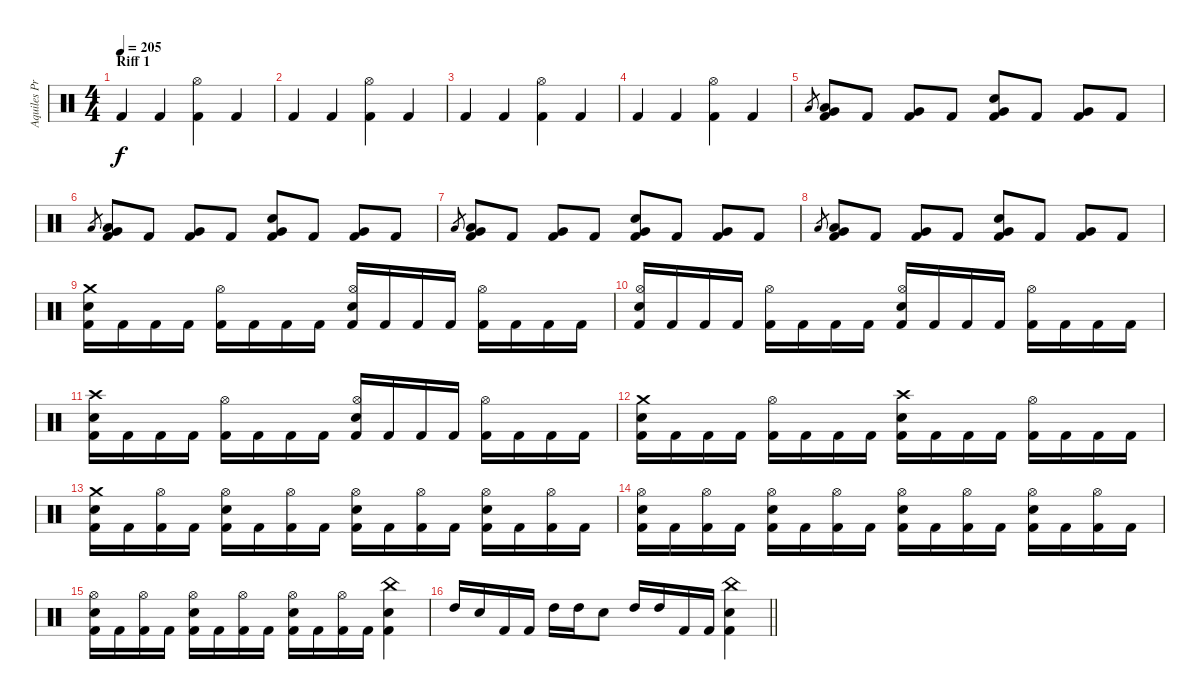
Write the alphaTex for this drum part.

\track ("Aquiles Priester" "Aquiles Pr") {instrument percussion}
\staff {score}
\articulation defaults
\ts (4 4)
\section ("" "Riff 1")
\tempo 205
\clef neutral
\ks c "Kick (hit) 2".4{dy f} "Kick (hit) 2".4
("Hi-Hat (open)" "Kick (hit) 2").4 "Kick (hit) 2".4 |
"Kick (hit) 2".4 "Kick (hit) 2".4 ("Hi-Hat (open)" "Kick (hit) 2").4 "Kick (hit) 2".4 |
"Kick (hit) 2".4 "Kick (hit) 2".4 ("Hi-Hat (open)" "Kick (hit) 2").4 "Kick (hit) 2".4 |
"Kick (hit) 2".4 "Kick (hit) 2".4 ("Hi-Hat (open)" "Kick (hit) 2").4 "Kick (hit) 2".4 |
"Low Tom (hit)".8{gr} ("Low Tom (hit)" "Very Low Tom (hit)" "Kick (hit) 2").8 "Kick (hit) 2".8 ("Very Low Tom (hit)" "Kick (hit) 2").8 "Kick (hit) 2".8 ("Very Low Tom (hit)" "Electric Snare (hit)" "Kick (hit) 2").8 "Kick (hit) 2".8 ("Very Low Tom (hit)" "Kick (hit) 2").8 "Kick (hit) 2".8 |
"Low Tom (hit)".8{gr} ("Low Tom (hit)" "Very Low Tom (hit)" "Kick (hit) 2").8 "Kick (hit) 2".8 ("Very Low Tom (hit)" "Kick (hit) 2").8 "Kick (hit) 2".8 ("Very Low Tom (hit)" "Electric Snare (hit)" "Kick (hit) 2").8 "Kick (hit) 2".8 ("Very Low Tom (hit)" "Kick (hit) 2").8 "Kick (hit) 2".8 |
"Low Tom (hit)".8{gr} ("Low Tom (hit)" "Very Low Tom (hit)" "Kick (hit) 2").8 "Kick (hit) 2".8 ("Very Low Tom (hit)" "Kick (hit) 2").8 "Kick (hit) 2".8 ("Very Low Tom (hit)" "Electric Snare (hit)" "Kick (hit) 2").8 "Kick (hit) 2".8 ("Very Low Tom (hit)" "Kick (hit) 2").8 "Kick (hit) 2".8 |
"Low Tom (hit)".8{gr} ("Low Tom (hit)" "Very Low Tom (hit)" "Kick (hit) 2").8 "Kick (hit) 2".8 ("Very Low Tom (hit)" "Kick (hit) 2").8 "Kick (hit) 2".8 ("Very Low Tom (hit)" "Electric Snare (hit)" "Kick (hit) 2").8 "Kick (hit) 2".8 ("Very Low Tom (hit)" "Kick (hit) 2").8 "Kick (hit) 2".8 |
("Crash medium (hit)" "Electric Snare (hit)" "Kick (hit) 2").16 "Kick (hit) 2".16 "Kick (hit) 2".16 "Kick (hit) 2".16 ("Hi-Hat (open)" "Kick (hit) 2").16 "Kick (hit) 2".16 "Kick (hit) 2".16 "Kick (hit) 2".16 ("Hi-Hat (open)" "Electric Snare (hit)" "Kick (hit) 2").16 "Kick (hit) 2".16 "Kick (hit) 2".16 "Kick (hit) 2".16 ("Hi-Hat (open)" "Kick (hit) 2").16 "Kick (hit) 2".16 "Kick (hit) 2".16 "Kick (hit) 2".16 |
("Hi-Hat (open)" "Electric Snare (hit)" "Kick (hit) 2").16 "Kick (hit) 2".16 "Kick (hit) 2".16 "Kick (hit) 2".16 ("Hi-Hat (open)" "Kick (hit) 2").16 "Kick (hit) 2".16 "Kick (hit) 2".16 "Kick (hit) 2".16 ("Hi-Hat (open)" "Electric Snare (hit)" "Kick (hit) 2").16 "Kick (hit) 2".16 "Kick (hit) 2".16 "Kick (hit) 2".16 ("Hi-Hat (open)" "Kick (hit) 2").16 "Kick (hit) 2".16 "Kick (hit) 2".16 "Kick (hit) 2".16 |
("Crash high (hit)" "Electric Snare (hit)" "Kick (hit) 2").16 "Kick (hit) 2".16 "Kick (hit) 2".16 "Kick (hit) 2".16 ("Hi-Hat (open)" "Kick (hit) 2").16 "Kick (hit) 2".16 "Kick (hit) 2".16 "Kick (hit) 2".16 ("Hi-Hat (open)" "Electric Snare (hit)" "Kick (hit) 2").16 "Kick (hit) 2".16 "Kick (hit) 2".16 "Kick (hit) 2".16 ("Hi-Hat (open)" "Kick (hit) 2").16 "Kick (hit) 2".16 "Kick (hit) 2".16 "Kick (hit) 2".16 |
("Crash medium (hit)" "Electric Snare (hit)" "Kick (hit) 2").16 "Kick (hit) 2".16 "Kick (hit) 2".16 "Kick (hit) 2".16 ("Hi-Hat (open)" "Kick (hit) 2").16 "Kick (hit) 2".16 "Kick (hit) 2".16 "Kick (hit) 2".16 ("Crash high (hit)" "Electric Snare (hit)" "Kick (hit) 2").16 "Kick (hit) 2".16 "Kick (hit) 2".16 "Kick (hit) 2".16 ("Hi-Hat (open)" "Kick (hit) 2").16 "Kick (hit) 2".16 "Kick (hit) 2".16 "Kick (hit) 2".16 |
("Crash medium (hit)" "Electric Snare (hit)" "Kick (hit) 2").16 "Kick (hit) 2".16 ("Hi-Hat (open)" "Kick (hit) 2").16 "Kick (hit) 2".16 ("Hi-Hat (open)" "Electric Snare (hit)" "Kick (hit) 2").16 "Kick (hit) 2".16 ("Hi-Hat (open)" "Kick (hit) 2").16 "Kick (hit) 2".16 ("Hi-Hat (open)" "Electric Snare (hit)" "Kick (hit) 2").16 "Kick (hit) 2".16 ("Hi-Hat (open)" "Kick (hit) 2").16 "Kick (hit) 2".16 ("Hi-Hat (open)" "Electric Snare (hit)" "Kick (hit) 2").16 "Kick (hit) 2".16 ("Hi-Hat (open)" "Kick (hit) 2").16 "Kick (hit) 2".16 |
("Hi-Hat (open)" "Electric Snare (hit)" "Kick (hit) 2").16 "Kick (hit) 2".16 ("Hi-Hat (open)" "Kick (hit) 2").16 "Kick (hit) 2".16 ("Hi-Hat (open)" "Electric Snare (hit)" "Kick (hit) 2").16 "Kick (hit) 2".16 ("Hi-Hat (open)" "Kick (hit) 2").16 "Kick (hit) 2".16 ("Hi-Hat (open)" "Electric Snare (hit)" "Kick (hit) 2").16 "Kick (hit) 2".16 ("Hi-Hat (open)" "Kick (hit) 2").16 "Kick (hit) 2".16 ("Hi-Hat (open)" "Electric Snare (hit)" "Kick (hit) 2").16 "Kick (hit) 2".16 ("Hi-Hat (open)" "Kick (hit) 2").16 "Kick (hit) 2".16 |
("Hi-Hat (open)" "Electric Snare (hit)" "Kick (hit) 2").16 "Kick (hit) 2".16 ("Hi-Hat (open)" "Kick (hit) 2").16 "Kick (hit) 2".16 ("Hi-Hat (open)" "Electric Snare (hit)" "Kick (hit) 2").16 "Kick (hit) 2".16 ("Hi-Hat (open)" "Kick (hit) 2").16 "Kick (hit) 2".16 ("Hi-Hat (open)" "Electric Snare (hit)" "Kick (hit) 2").16 "Kick (hit) 2".16 ("Hi-Hat (open)" "Kick (hit) 2").16 "Kick (hit) 2".16 ("China (hit)" "Electric Snare (hit)" "Kick (hit) 2").4 |
\barLineRight lightlight "High Tom (hit)".16 "Electric Snare (hit)".16 "Kick (hit) 2".16 "Kick (hit) 2".16 "High Tom (hit)".16 "High Tom (hit)".16 "Electric Snare (hit)".8 "High Tom (hit)".16 "High Tom (hit)".16 "Kick (hit) 2".16 "Kick (hit) 2".16
("China (hit)" "Electric Snare (hit)" "Kick (hit) 2").4
